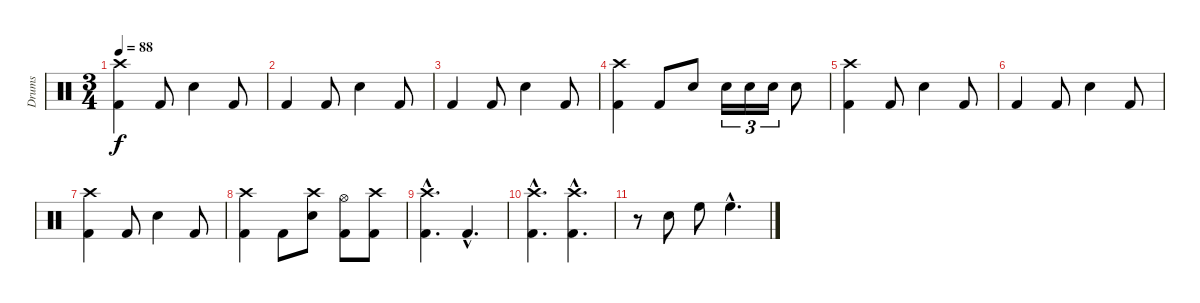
\track ("Drums" "Drums") {instrument percussion}
\staff {score}
\articulation defaults
\ts (3 4)
\tempo 88
\clef neutral
\ks c
("Crash high (hit)" "Kick (hit) 2").4{dy f} "Kick (hit) 2".8 "Snare (hit) 2".4 "Kick (hit) 2".8 |
"Kick (hit) 2".4 "Kick (hit) 2".8 "Snare (hit) 2".4 "Kick (hit) 2".8 |
"Kick (hit) 2".4 "Kick (hit) 2".8 "Snare (hit) 2".4 "Kick (hit) 2".8 |
("Crash high (hit)" "Kick (hit) 2").4 "Kick (hit) 2".8 "Snare (hit) 2".8 "Snare (hit) 2".16{tu (3 2)} "Snare (hit) 2".16{tu (3 2)} "Snare (hit) 2".16{tu (3 2)} "Snare (hit) 2".8 |
("Crash high (hit)" "Kick (hit) 2").4 "Kick (hit) 2".8 "Snare (hit) 2".4 "Kick (hit) 2".8 |
"Kick (hit) 2".4 "Kick (hit) 2".8 "Snare (hit) 2".4 "Kick (hit) 2".8 |
("Crash high (hit)" "Kick (hit) 2").4 "Kick (hit) 2".8 "Snare (hit) 2".4 "Kick (hit) 2".8 |
("Crash high (hit)" "Kick (hit) 2").4 "Kick (hit) 2".8 ("Crash high (hit)" "Snare (hit) 2").8 ("Hi-Hat (open)" "Kick (hit) 2").8 ("Crash high (hit)" "Kick (hit) 2").8 |
("Crash high (hit)"{hac} "Kick (hit) 2"{hac}).4{d} "Kick (hit) 2"{hac}.4{d} |
("Crash high (hit)"{hac} "Kick (hit) 2"{hac}).4{d} ("Crash high (hit)"{hac} "Kick (hit) 2"{hac}).4{d} |
r.8 "Snare (hit) 2".8 "High Floor Tom (hit)".8 "High Floor Tom (hit)"{hac}.4{d}
